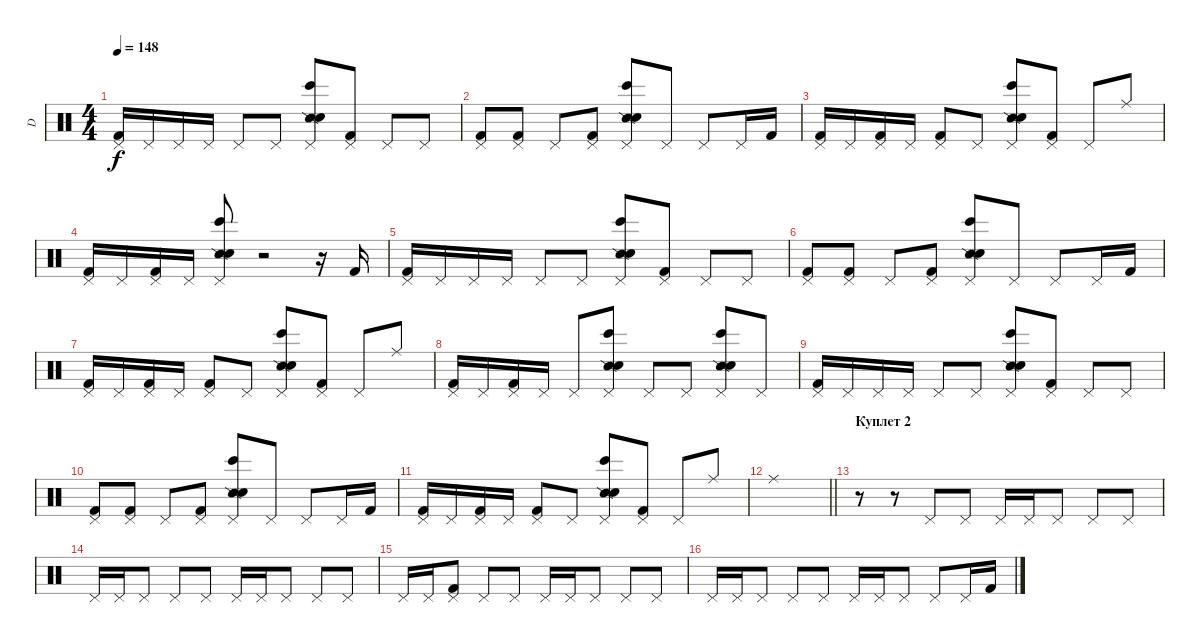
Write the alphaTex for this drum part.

\track ("D" "D") {instrument percussion}
\staff {score}
\articulation defaults
\ts (4 4)
\tempo 148
\clef neutral
\ks c
("Kick (hit) 2" "Pedal Hi-Hat (hit)").16{dy f} "Pedal Hi-Hat (hit)".16 "Pedal Hi-Hat (hit)".16 "Pedal Hi-Hat (hit)".16 "Pedal Hi-Hat (hit)".8 "Pedal Hi-Hat (hit)".8 ("Bongo High (hit)" "Snare (side stick) 2" "Electric Snare (hit)" "Pedal Hi-Hat (hit)").8 ("Kick (hit) 2" "Pedal Hi-Hat (hit)").8 "Pedal Hi-Hat (hit)".8 "Pedal Hi-Hat (hit)".8 |
("Kick (hit) 2" "Pedal Hi-Hat (hit)").8 ("Kick (hit) 2" "Pedal Hi-Hat (hit)").8 "Pedal Hi-Hat (hit)".8 ("Kick (hit) 2" "Pedal Hi-Hat (hit)").8 ("Bongo High (hit)" "Snare (side stick) 2" "Electric Snare (hit)" "Pedal Hi-Hat (hit)").8 "Pedal Hi-Hat (hit)".8 "Pedal Hi-Hat (hit)".8 "Pedal Hi-Hat (hit)".16 "Kick (hit) 2".16 |
("Kick (hit) 2" "Pedal Hi-Hat (hit)").16 "Pedal Hi-Hat (hit)".16 ("Kick (hit) 2" "Pedal Hi-Hat (hit)").16 "Pedal Hi-Hat (hit)".16 ("Kick (hit) 2" "Pedal Hi-Hat (hit)").8 "Pedal Hi-Hat (hit)".8 ("Bongo High (hit)" "Snare (side stick) 2" "Electric Snare (hit)" "Pedal Hi-Hat (hit)").8 ("Kick (hit) 2" "Pedal Hi-Hat (hit)").8 "Pedal Hi-Hat (hit)".8 "Ride (middle)".8 |
("Kick (hit) 2" "Pedal Hi-Hat (hit)").16 "Pedal Hi-Hat (hit)".16 ("Kick (hit) 2" "Pedal Hi-Hat (hit)").16 "Pedal Hi-Hat (hit)".16 ("Bongo High (hit)" "Snare (side stick) 2" "Electric Snare (hit)" "Pedal Hi-Hat (hit)").8 r.2 r.16 "Kick (hit) 2".16 |
("Kick (hit) 2" "Pedal Hi-Hat (hit)").16 "Pedal Hi-Hat (hit)".16 "Pedal Hi-Hat (hit)".16 "Pedal Hi-Hat (hit)".16 "Pedal Hi-Hat (hit)".8 "Pedal Hi-Hat (hit)".8 ("Bongo High (hit)" "Snare (side stick) 2" "Electric Snare (hit)" "Pedal Hi-Hat (hit)").8 ("Kick (hit) 2" "Pedal Hi-Hat (hit)").8 "Pedal Hi-Hat (hit)".8 "Pedal Hi-Hat (hit)".8 |
("Kick (hit) 2" "Pedal Hi-Hat (hit)").8 ("Kick (hit) 2" "Pedal Hi-Hat (hit)").8 "Pedal Hi-Hat (hit)".8 ("Kick (hit) 2" "Pedal Hi-Hat (hit)").8 ("Bongo High (hit)" "Snare (side stick) 2" "Electric Snare (hit)" "Pedal Hi-Hat (hit)").8 "Pedal Hi-Hat (hit)".8 "Pedal Hi-Hat (hit)".8 "Pedal Hi-Hat (hit)".16 "Kick (hit) 2".16 |
("Kick (hit) 2" "Pedal Hi-Hat (hit)").16 "Pedal Hi-Hat (hit)".16 ("Kick (hit) 2" "Pedal Hi-Hat (hit)").16 "Pedal Hi-Hat (hit)".16 ("Kick (hit) 2" "Pedal Hi-Hat (hit)").8 "Pedal Hi-Hat (hit)".8 ("Bongo High (hit)" "Snare (side stick) 2" "Electric Snare (hit)" "Pedal Hi-Hat (hit)").8 ("Kick (hit) 2" "Pedal Hi-Hat (hit)").8 "Pedal Hi-Hat (hit)".8 "Ride (middle)".8 |
("Kick (hit) 2" "Pedal Hi-Hat (hit)").16 "Pedal Hi-Hat (hit)".16 ("Kick (hit) 2" "Pedal Hi-Hat (hit)").16 "Pedal Hi-Hat (hit)".16 "Pedal Hi-Hat (hit)".8 ("Bongo High (hit)" "Snare (side stick) 2" "Electric Snare (hit)" "Pedal Hi-Hat (hit)").8 "Pedal Hi-Hat (hit)".8 "Pedal Hi-Hat (hit)".8 ("Bongo High (hit)" "Snare (side stick) 2" "Electric Snare (hit)" "Pedal Hi-Hat (hit)").8 "Pedal Hi-Hat (hit)".8 |
("Kick (hit) 2" "Pedal Hi-Hat (hit)").16 "Pedal Hi-Hat (hit)".16 "Pedal Hi-Hat (hit)".16 "Pedal Hi-Hat (hit)".16 "Pedal Hi-Hat (hit)".8 "Pedal Hi-Hat (hit)".8 ("Bongo High (hit)" "Snare (side stick) 2" "Electric Snare (hit)" "Pedal Hi-Hat (hit)").8 ("Kick (hit) 2" "Pedal Hi-Hat (hit)").8 "Pedal Hi-Hat (hit)".8 "Pedal Hi-Hat (hit)".8 |
("Kick (hit) 2" "Pedal Hi-Hat (hit)").8 ("Kick (hit) 2" "Pedal Hi-Hat (hit)").8 "Pedal Hi-Hat (hit)".8 ("Kick (hit) 2" "Pedal Hi-Hat (hit)").8 ("Bongo High (hit)" "Snare (side stick) 2" "Electric Snare (hit)" "Pedal Hi-Hat (hit)").8 "Pedal Hi-Hat (hit)".8 "Pedal Hi-Hat (hit)".8 "Pedal Hi-Hat (hit)".16 "Kick (hit) 2".16 |
("Kick (hit) 2" "Pedal Hi-Hat (hit)").16 "Pedal Hi-Hat (hit)".16 ("Kick (hit) 2" "Pedal Hi-Hat (hit)").16 "Pedal Hi-Hat (hit)".16 ("Kick (hit) 2" "Pedal Hi-Hat (hit)").8 "Pedal Hi-Hat (hit)".8 ("Bongo High (hit)" "Snare (side stick) 2" "Electric Snare (hit)" "Pedal Hi-Hat (hit)").8 ("Kick (hit) 2" "Pedal Hi-Hat (hit)").8 "Pedal Hi-Hat (hit)".8 "Ride (middle)".8 |
\barLineRight lightlight "Ride (middle)".1
|
\section ("" "Куплет 2")
r.8 r.8 "Pedal Hi-Hat (hit)".8 "Pedal Hi-Hat (hit)".8 "Pedal Hi-Hat (hit)".16 "Pedal Hi-Hat (hit)".16 "Pedal Hi-Hat (hit)".8 "Pedal Hi-Hat (hit)".8 "Pedal Hi-Hat (hit)".8 |
"Pedal Hi-Hat (hit)".16 "Pedal Hi-Hat (hit)".16 "Pedal Hi-Hat (hit)".8 "Pedal Hi-Hat (hit)".8 "Pedal Hi-Hat (hit)".8 "Pedal Hi-Hat (hit)".16 "Pedal Hi-Hat (hit)".16 "Pedal Hi-Hat (hit)".8 "Pedal Hi-Hat (hit)".8 "Pedal Hi-Hat (hit)".8 |
"Pedal Hi-Hat (hit)".16 "Pedal Hi-Hat (hit)".16 ("Kick (hit) 2" "Pedal Hi-Hat (hit)").8 "Pedal Hi-Hat (hit)".8 "Pedal Hi-Hat (hit)".8 "Pedal Hi-Hat (hit)".16 "Pedal Hi-Hat (hit)".16 "Pedal Hi-Hat (hit)".8 "Pedal Hi-Hat (hit)".8 "Pedal Hi-Hat (hit)".8 |
"Pedal Hi-Hat (hit)".16 "Pedal Hi-Hat (hit)".16 "Pedal Hi-Hat (hit)".8 "Pedal Hi-Hat (hit)".8 "Pedal Hi-Hat (hit)".8 "Pedal Hi-Hat (hit)".16 "Pedal Hi-Hat (hit)".16 "Pedal Hi-Hat (hit)".8 "Pedal Hi-Hat (hit)".8 "Pedal Hi-Hat (hit)".16 "Kick (hit) 2".16
